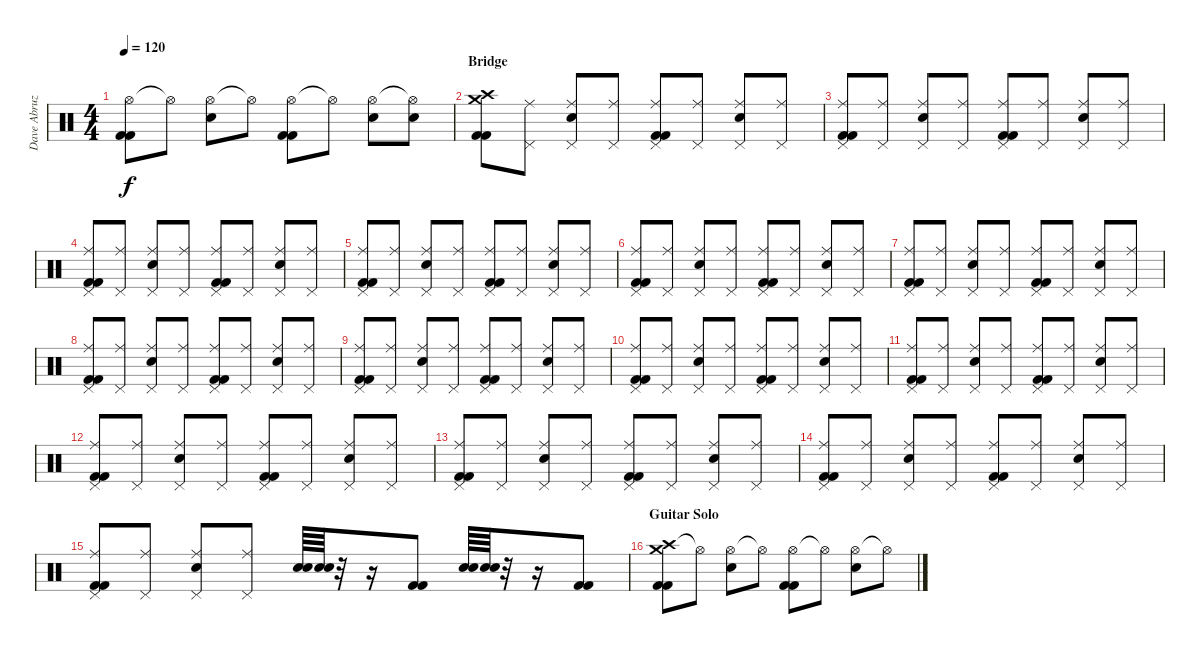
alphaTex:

\track ("Dave Abruzzese" "Dave Abruz") {instrument percussion}
\staff {score}
\articulation defaults
\ts (4 4)
\tempo 120
\clef neutral
\ks c
("Hi-Hat (open)" "Kick (hit) 2" "Kick (hit) 2").8{dy f} "Hi-Hat (open)"{t}.8 ("Hi-Hat (open)" "Electric Snare (hit)").8 "Hi-Hat (open)"{t}.8 ("Hi-Hat (open)" "Kick (hit) 2" "Kick (hit) 2").8 "Hi-Hat (open)"{t}.8 ("Hi-Hat (open)" "Electric Snare (hit)").8 ("Hi-Hat (open)"{t} "Electric Snare (hit)").8 |
\section ("" "Bridge")
("Crash high (hit)" "Crash medium (hit)" "Kick (hit) 2" "Kick (hit) 2").8 ("Ride (middle)" "Pedal Hi-Hat (hit)").8 ("Ride (middle)" "Pedal Hi-Hat (hit)" "Electric Snare (hit)").8 ("Ride (middle)" "Pedal Hi-Hat (hit)").8 ("Ride (middle)" "Pedal Hi-Hat (hit)" "Kick (hit) 2" "Kick (hit) 2").8 ("Ride (middle)" "Pedal Hi-Hat (hit)").8 ("Ride (middle)" "Pedal Hi-Hat (hit)" "Electric Snare (hit)").8 ("Ride (middle)" "Pedal Hi-Hat (hit)").8 |
("Ride (middle)" "Pedal Hi-Hat (hit)" "Kick (hit) 2" "Kick (hit) 2").8 ("Ride (middle)" "Pedal Hi-Hat (hit)").8 ("Ride (middle)" "Pedal Hi-Hat (hit)" "Electric Snare (hit)").8 ("Ride (middle)" "Pedal Hi-Hat (hit)").8 ("Ride (middle)" "Pedal Hi-Hat (hit)" "Kick (hit) 2" "Kick (hit) 2").8 ("Ride (middle)" "Pedal Hi-Hat (hit)").8 ("Ride (middle)" "Pedal Hi-Hat (hit)" "Electric Snare (hit)").8 ("Ride (middle)" "Pedal Hi-Hat (hit)").8 |
("Ride (middle)" "Pedal Hi-Hat (hit)" "Kick (hit) 2" "Kick (hit) 2").8 ("Ride (middle)" "Pedal Hi-Hat (hit)").8 ("Ride (middle)" "Pedal Hi-Hat (hit)" "Electric Snare (hit)").8 ("Ride (middle)" "Pedal Hi-Hat (hit)").8 ("Ride (middle)" "Pedal Hi-Hat (hit)" "Kick (hit) 2" "Kick (hit) 2").8 ("Ride (middle)" "Pedal Hi-Hat (hit)").8 ("Ride (middle)" "Pedal Hi-Hat (hit)" "Electric Snare (hit)").8 ("Ride (middle)" "Pedal Hi-Hat (hit)").8 |
("Ride (middle)" "Pedal Hi-Hat (hit)" "Kick (hit) 2" "Kick (hit) 2").8 ("Ride (middle)" "Pedal Hi-Hat (hit)").8 ("Ride (middle)" "Pedal Hi-Hat (hit)" "Electric Snare (hit)").8 ("Ride (middle)" "Pedal Hi-Hat (hit)").8 ("Ride (middle)" "Pedal Hi-Hat (hit)" "Kick (hit) 2" "Kick (hit) 2").8 ("Ride (middle)" "Pedal Hi-Hat (hit)").8 ("Ride (middle)" "Pedal Hi-Hat (hit)" "Electric Snare (hit)").8 ("Ride (middle)" "Pedal Hi-Hat (hit)").8 |
("Ride (middle)" "Pedal Hi-Hat (hit)" "Kick (hit) 2" "Kick (hit) 2").8 ("Ride (middle)" "Pedal Hi-Hat (hit)").8 ("Ride (middle)" "Pedal Hi-Hat (hit)" "Electric Snare (hit)").8 ("Ride (middle)" "Pedal Hi-Hat (hit)").8 ("Ride (middle)" "Pedal Hi-Hat (hit)" "Kick (hit) 2" "Kick (hit) 2").8 ("Ride (middle)" "Pedal Hi-Hat (hit)").8 ("Ride (middle)" "Pedal Hi-Hat (hit)" "Electric Snare (hit)").8 ("Ride (middle)" "Pedal Hi-Hat (hit)").8 |
("Ride (middle)" "Pedal Hi-Hat (hit)" "Kick (hit) 2" "Kick (hit) 2").8 ("Ride (middle)" "Pedal Hi-Hat (hit)").8 ("Ride (middle)" "Pedal Hi-Hat (hit)" "Electric Snare (hit)").8 ("Ride (middle)" "Pedal Hi-Hat (hit)").8 ("Ride (middle)" "Pedal Hi-Hat (hit)" "Kick (hit) 2" "Kick (hit) 2").8 ("Ride (middle)" "Pedal Hi-Hat (hit)").8 ("Ride (middle)" "Pedal Hi-Hat (hit)" "Electric Snare (hit)").8 ("Ride (middle)" "Pedal Hi-Hat (hit)").8 |
("Ride (middle)" "Pedal Hi-Hat (hit)" "Kick (hit) 2" "Kick (hit) 2").8 ("Ride (middle)" "Pedal Hi-Hat (hit)").8 ("Ride (middle)" "Pedal Hi-Hat (hit)" "Electric Snare (hit)").8 ("Ride (middle)" "Pedal Hi-Hat (hit)").8 ("Ride (middle)" "Pedal Hi-Hat (hit)" "Kick (hit) 2" "Kick (hit) 2").8 ("Ride (middle)" "Pedal Hi-Hat (hit)").8 ("Ride (middle)" "Pedal Hi-Hat (hit)" "Electric Snare (hit)").8 ("Ride (middle)" "Pedal Hi-Hat (hit)").8 |
("Ride (middle)" "Pedal Hi-Hat (hit)" "Kick (hit) 2" "Kick (hit) 2").8 ("Ride (middle)" "Pedal Hi-Hat (hit)").8 ("Ride (middle)" "Pedal Hi-Hat (hit)" "Electric Snare (hit)").8 ("Ride (middle)" "Pedal Hi-Hat (hit)").8 ("Ride (middle)" "Pedal Hi-Hat (hit)" "Kick (hit) 2" "Kick (hit) 2").8 ("Ride (middle)" "Pedal Hi-Hat (hit)").8 ("Ride (middle)" "Pedal Hi-Hat (hit)" "Electric Snare (hit)").8 ("Ride (middle)" "Pedal Hi-Hat (hit)").8 |
("Ride (middle)" "Pedal Hi-Hat (hit)" "Kick (hit) 2" "Kick (hit) 2").8 ("Ride (middle)" "Pedal Hi-Hat (hit)").8 ("Ride (middle)" "Pedal Hi-Hat (hit)" "Electric Snare (hit)").8 ("Ride (middle)" "Pedal Hi-Hat (hit)").8 ("Ride (middle)" "Pedal Hi-Hat (hit)" "Kick (hit) 2" "Kick (hit) 2").8 ("Ride (middle)" "Pedal Hi-Hat (hit)").8 ("Ride (middle)" "Pedal Hi-Hat (hit)" "Electric Snare (hit)").8 ("Ride (middle)" "Pedal Hi-Hat (hit)").8 |
("Ride (middle)" "Pedal Hi-Hat (hit)" "Kick (hit) 2" "Kick (hit) 2").8 ("Ride (middle)" "Pedal Hi-Hat (hit)").8 ("Ride (middle)" "Pedal Hi-Hat (hit)" "Electric Snare (hit)").8 ("Ride (middle)" "Pedal Hi-Hat (hit)").8 ("Ride (middle)" "Pedal Hi-Hat (hit)" "Kick (hit) 2" "Kick (hit) 2").8 ("Ride (middle)" "Pedal Hi-Hat (hit)").8 ("Ride (middle)" "Pedal Hi-Hat (hit)" "Electric Snare (hit)").8 ("Ride (middle)" "Pedal Hi-Hat (hit)").8 |
("Ride (middle)" "Pedal Hi-Hat (hit)" "Kick (hit) 2" "Kick (hit) 2").8 ("Ride (middle)" "Pedal Hi-Hat (hit)").8 ("Ride (middle)" "Pedal Hi-Hat (hit)" "Electric Snare (hit)").8 ("Ride (middle)" "Pedal Hi-Hat (hit)").8 ("Ride (middle)" "Pedal Hi-Hat (hit)" "Kick (hit) 2" "Kick (hit) 2").8 ("Ride (middle)" "Pedal Hi-Hat (hit)").8 ("Ride (middle)" "Pedal Hi-Hat (hit)" "Electric Snare (hit)").8 ("Ride (middle)" "Pedal Hi-Hat (hit)").8 |
("Ride (middle)" "Pedal Hi-Hat (hit)" "Kick (hit) 2" "Kick (hit) 2").8 ("Ride (middle)" "Pedal Hi-Hat (hit)").8 ("Ride (middle)" "Pedal Hi-Hat (hit)" "Electric Snare (hit)").8 ("Ride (middle)" "Pedal Hi-Hat (hit)").8 ("Ride (middle)" "Pedal Hi-Hat (hit)" "Kick (hit) 2" "Kick (hit) 2").8 ("Ride (middle)" "Pedal Hi-Hat (hit)").8 ("Ride (middle)" "Pedal Hi-Hat (hit)" "Electric Snare (hit)").8 ("Ride (middle)" "Pedal Hi-Hat (hit)").8 |
("Ride (middle)" "Pedal Hi-Hat (hit)" "Kick (hit) 2" "Kick (hit) 2").8 ("Ride (middle)" "Pedal Hi-Hat (hit)").8 ("Ride (middle)" "Pedal Hi-Hat (hit)" "Electric Snare (hit)").8 ("Ride (middle)" "Pedal Hi-Hat (hit)").8 ("Ride (middle)" "Pedal Hi-Hat (hit)" "Kick (hit) 2" "Kick (hit) 2").8 ("Ride (middle)" "Pedal Hi-Hat (hit)").8 ("Ride (middle)" "Pedal Hi-Hat (hit)" "Electric Snare (hit)").8 ("Ride (middle)" "Pedal Hi-Hat (hit)").8 |
("Ride (middle)" "Pedal Hi-Hat (hit)" "Kick (hit) 2" "Kick (hit) 2").8 ("Ride (middle)" "Pedal Hi-Hat (hit)").8 ("Ride (middle)" "Pedal Hi-Hat (hit)" "Electric Snare (hit)").8 ("Ride (middle)" "Pedal Hi-Hat (hit)").8 ("Electric Snare (hit)" "Electric Snare (hit)").64 ("Electric Snare (hit)" "Electric Snare (hit)").64 r.32 r.16 ("Kick (hit) 2" "Kick (hit) 2").8 ("Electric Snare (hit)" "Electric Snare (hit)").64 ("Electric Snare (hit)" "Electric Snare (hit)").64 r.32 r.16 ("Kick (hit) 2" "Kick (hit) 2").8 |
\section ("" "Guitar Solo")
("Crash high (hit)" "Crash medium (hit)" "Kick (hit) 2" "Kick (hit) 2").8 "Hi-Hat (open)"{t}.8 ("Hi-Hat (open)" "Electric Snare (hit)").8 "Hi-Hat (open)"{t}.8 ("Hi-Hat (open)" "Kick (hit) 2" "Kick (hit) 2").8 "Hi-Hat (open)"{t}.8 ("Hi-Hat (open)" "Electric Snare (hit)").8 "Hi-Hat (open)"{t}.8
